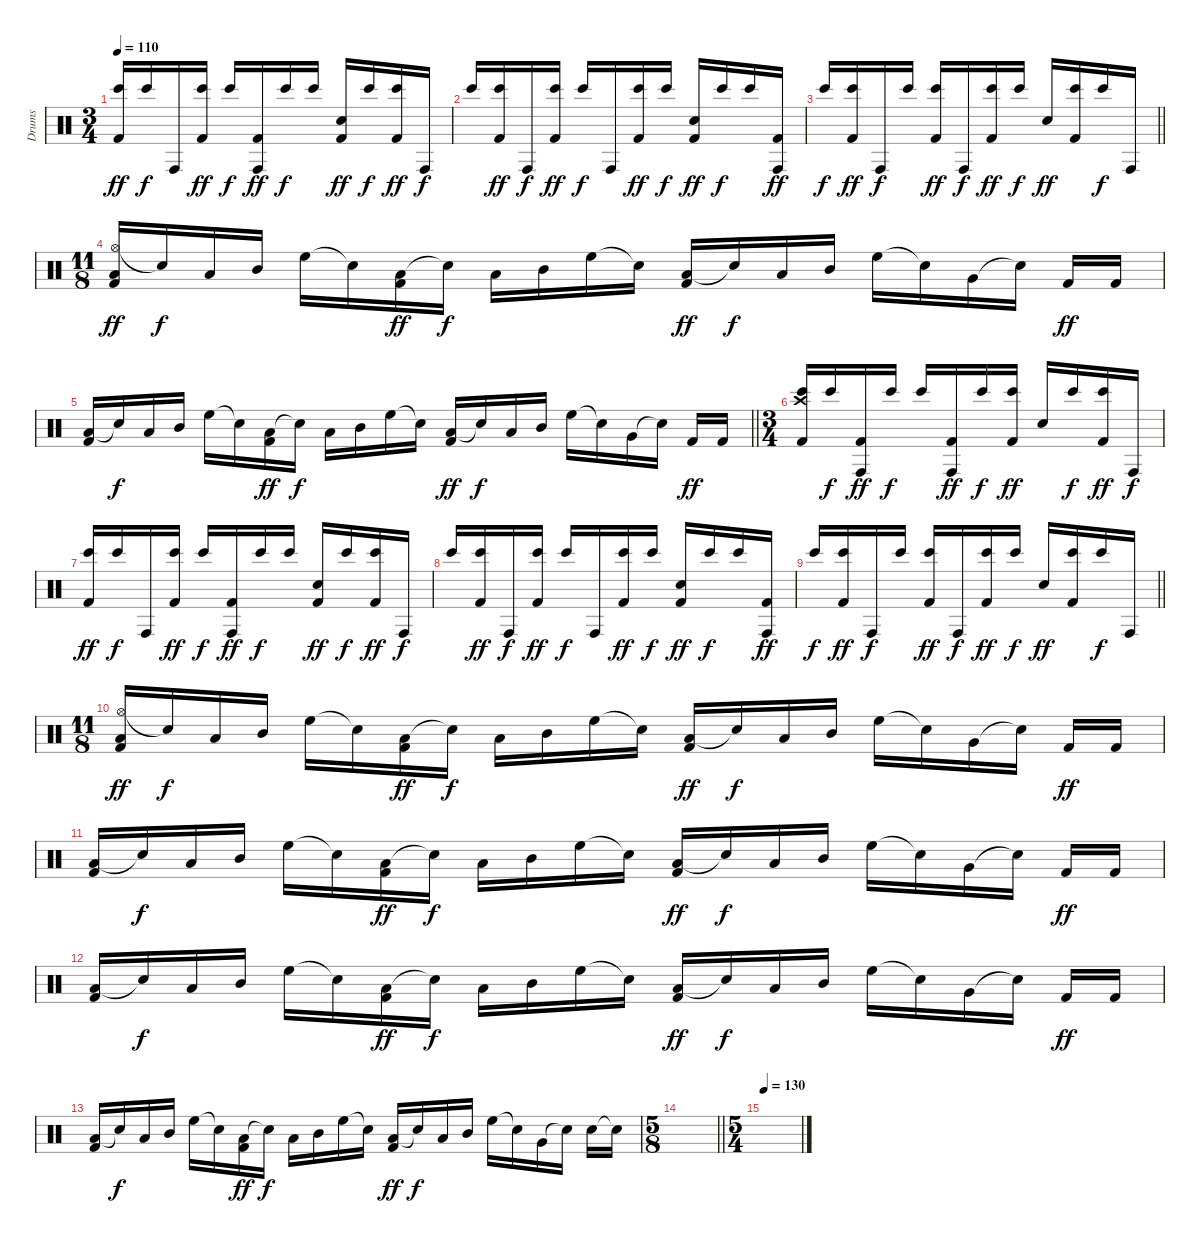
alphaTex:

\track ("Drums" "Drums") {instrument percussion}
\staff {score}
\articulation defaults
\ts (3 4)
\tempo 110
\clef neutral
\ks c
("Bongo High (hit)" "Kick (hit) 2").16{dy ff} "Bongo High (hit)".16{dy f} "Conga high (hit)".16 ("Bongo High (hit)" "Kick (hit) 2").16{dy ff} "Bongo High (hit)".16{dy f} ("Conga high (hit)" "Kick (hit) 2").16{dy ff} "Bongo High (hit)".16{dy f} "Bongo High (hit)".16 ("Snare (hit) 2" "Kick (hit) 2").16{dy ff} "Bongo High (hit)".16{dy f} ("Bongo High (hit)" "Kick (hit) 2").16{dy ff} "Conga high (hit)".16{dy f} |
"Bongo High (hit)".16 ("Bongo High (hit)" "Kick (hit) 2").16{dy ff} "Conga high (hit)".16{dy f} ("Bongo High (hit)" "Kick (hit) 2").16{dy ff} "Bongo High (hit)".16{dy f} "Conga high (hit)".16 ("Bongo High (hit)" "Kick (hit) 2").16{dy ff} "Bongo High (hit)".16{dy f} ("Snare (hit) 2" "Kick (hit) 2").16{dy ff} "Bongo High (hit)".16{dy f} "Bongo High (hit)".16 ("Conga high (hit)" "Kick (hit) 2").16{dy ff} |
\barLineRight lightlight "Bongo High (hit)".16{dy f}
("Bongo High (hit)" "Kick (hit) 2").16{dy ff} "Conga high (hit)".16{dy f} "Bongo High (hit)".16 ("Bongo High (hit)" "Kick (hit) 2").16{dy ff} "Conga high (hit)".16{dy f} ("Bongo High (hit)" "Kick (hit) 2").16{dy ff} "Bongo High (hit)".16{dy f} "Snare (hit) 2".16{dy ff} ("Bongo High (hit)" "Kick (hit) 2").16 "Bongo High (hit)".16{dy f} "Conga high (hit)".16 |
\ts (11 8)
\section ("" "")
("Hi-Hat (open)" "Low Tom (hit)" "Kick (hit) 2").16{dy ff} "Snare (hit)"{t}.16{dy f} "Low Tom (hit)".16 "Mid Tom (hit)".16 "High Floor Tom (hit)".16 "Snare (hit)"{t}.16 ("Low Tom (hit)" "Kick (hit) 2").16{dy ff} "Snare (hit)"{t}.16{dy f} "Low Tom (hit)".16 "Mid Tom (hit)".16 "High Floor Tom (hit)".16 "Snare (hit)"{t}.16 ("Low Tom (hit)" "Kick (hit) 2").16{dy ff} "Snare (hit)"{t}.16{dy f} "Low Tom (hit)".16 "Mid Tom (hit)".16 "High Floor Tom (hit)".16 "Snare (hit)"{t}.16 "Very Low Tom (hit)".16 "Snare (hit)"{t}.16 "Kick (hit) 2".16{dy ff} "Kick (hit) 2".16 |
\barLineRight lightlight
("Low Tom (hit)" "Kick (hit) 2").16 "Snare (hit)"{t}.16{dy f} "Low Tom (hit)".16 "Mid Tom (hit)".16 "High Floor Tom (hit)".16 "Snare (hit)"{t}.16 ("Low Tom (hit)" "Kick (hit) 2").16{dy ff} "Snare (hit)"{t}.16{dy f} "Low Tom (hit)".16 "Mid Tom (hit)".16 "High Floor Tom (hit)".16 "Snare (hit)"{t}.16 ("Low Tom (hit)" "Kick (hit) 2").16{dy ff} "Snare (hit)"{t}.16{dy f} "Low Tom (hit)".16 "Mid Tom (hit)".16 "High Floor Tom (hit)".16 "Snare (hit)"{t}.16 "Very Low Tom (hit)".16 "Snare (hit)"{t}.16 "Kick (hit) 2".16{dy ff} "Kick (hit) 2".16 |
\ts (3 4)
\section ("" "")
("Crash high (hit)" "Bongo High (hit)" "Kick (hit) 2").16 "Bongo High (hit)".16{dy f} ("Conga high (hit)" "Kick (hit) 2").16{dy ff} "Bongo High (hit)".16{dy f} "Bongo High (hit)".16 ("Conga high (hit)" "Kick (hit) 2").16{dy ff} "Bongo High (hit)".16{dy f} ("Bongo High (hit)" "Kick (hit) 2").16{dy ff} "Snare (hit) 2".16 "Bongo High (hit)".16{dy f} ("Bongo High (hit)" "Kick (hit) 2").16{dy ff} "Conga high (hit)".16{dy f} |
("Bongo High (hit)" "Kick (hit) 2").16{dy ff} "Bongo High (hit)".16{dy f} "Conga high (hit)".16 ("Bongo High (hit)" "Kick (hit) 2").16{dy ff} "Bongo High (hit)".16{dy f} ("Conga high (hit)" "Kick (hit) 2").16{dy ff} "Bongo High (hit)".16{dy f} "Bongo High (hit)".16 ("Snare (hit) 2" "Kick (hit) 2").16{dy ff} "Bongo High (hit)".16{dy f} ("Bongo High (hit)" "Kick (hit) 2").16{dy ff} "Conga high (hit)".16{dy f} |
"Bongo High (hit)".16 ("Bongo High (hit)" "Kick (hit) 2").16{dy ff} "Conga high (hit)".16{dy f} ("Bongo High (hit)" "Kick (hit) 2").16{dy ff} "Bongo High (hit)".16{dy f} "Conga high (hit)".16 ("Bongo High (hit)" "Kick (hit) 2").16{dy ff} "Bongo High (hit)".16{dy f} ("Snare (hit) 2" "Kick (hit) 2").16{dy ff} "Bongo High (hit)".16{dy f} "Bongo High (hit)".16 ("Conga high (hit)" "Kick (hit) 2").16{dy ff} |
\barLineRight lightlight "Bongo High (hit)".16{dy f}
("Bongo High (hit)" "Kick (hit) 2").16{dy ff} "Conga high (hit)".16{dy f} "Bongo High (hit)".16 ("Bongo High (hit)" "Kick (hit) 2").16{dy ff} "Conga high (hit)".16{dy f} ("Bongo High (hit)" "Kick (hit) 2").16{dy ff} "Bongo High (hit)".16{dy f} "Snare (hit) 2".16{dy ff} ("Bongo High (hit)" "Kick (hit) 2").16 "Bongo High (hit)".16{dy f} "Conga high (hit)".16 |
\ts (11 8)
\section ("" "")
("Hi-Hat (open)" "Low Tom (hit)" "Kick (hit) 2").16{dy ff} "Snare (hit)"{t}.16{dy f} "Low Tom (hit)".16 "Mid Tom (hit)".16 "High Floor Tom (hit)".16 "Snare (hit)"{t}.16 ("Low Tom (hit)" "Kick (hit) 2").16{dy ff} "Snare (hit)"{t}.16{dy f} "Low Tom (hit)".16 "Mid Tom (hit)".16 "High Floor Tom (hit)".16 "Snare (hit)"{t}.16 ("Low Tom (hit)" "Kick (hit) 2").16{dy ff} "Snare (hit)"{t}.16{dy f} "Low Tom (hit)".16 "Mid Tom (hit)".16 "High Floor Tom (hit)".16 "Snare (hit)"{t}.16 "Very Low Tom (hit)".16 "Snare (hit)"{t}.16 "Kick (hit) 2".16{dy ff} "Kick (hit) 2".16 |
("Low Tom (hit)" "Kick (hit) 2").16 "Snare (hit)"{t}.16{dy f} "Low Tom (hit)".16 "Mid Tom (hit)".16 "High Floor Tom (hit)".16 "Snare (hit)"{t}.16 ("Low Tom (hit)" "Kick (hit) 2").16{dy ff} "Snare (hit)"{t}.16{dy f} "Low Tom (hit)".16 "Mid Tom (hit)".16 "High Floor Tom (hit)".16 "Snare (hit)"{t}.16 ("Low Tom (hit)" "Kick (hit) 2").16{dy ff} "Snare (hit)"{t}.16{dy f} "Low Tom (hit)".16 "Mid Tom (hit)".16 "High Floor Tom (hit)".16 "Snare (hit)"{t}.16 "Very Low Tom (hit)".16 "Snare (hit)"{t}.16 "Kick (hit) 2".16{dy ff} "Kick (hit) 2".16 |
("Low Tom (hit)" "Kick (hit) 2").16 "Snare (hit)"{t}.16{dy f} "Low Tom (hit)".16 "Mid Tom (hit)".16 "High Floor Tom (hit)".16 "Snare (hit)"{t}.16 ("Low Tom (hit)" "Kick (hit) 2").16{dy ff} "Snare (hit)"{t}.16{dy f} "Low Tom (hit)".16 "Mid Tom (hit)".16 "High Floor Tom (hit)".16 "Snare (hit)"{t}.16 ("Low Tom (hit)" "Kick (hit) 2").16{dy ff} "Snare (hit)"{t}.16{dy f} "Low Tom (hit)".16 "Mid Tom (hit)".16 "High Floor Tom (hit)".16 "Snare (hit)"{t}.16 "Very Low Tom (hit)".16 "Snare (hit)"{t}.16 "Kick (hit) 2".16{dy ff} "Kick (hit) 2".16 |
("Low Tom (hit)" "Kick (hit) 2").16 "Snare (hit)"{t}.16{dy f} "Low Tom (hit)".16 "Mid Tom (hit)".16 "High Floor Tom (hit)".16 "Snare (hit)"{t}.16 ("Low Tom (hit)" "Kick (hit) 2").16{dy ff} "Snare (hit)"{t}.16{dy f} "Low Tom (hit)".16 "Mid Tom (hit)".16 "High Floor Tom (hit)".16 "Snare (hit)"{t}.16 ("Low Tom (hit)" "Kick (hit) 2").16{dy ff} "Snare (hit)"{t}.16{dy f} "Low Tom (hit)".16 "Mid Tom (hit)".16 "High Floor Tom (hit)".16 "Snare (hit)"{t}.16 "Very Low Tom (hit)".16 "Snare (hit)"{t}.16 "Snare (hit) 2".16 "Snare (hit)"{t}.16 |
\ts (5 8)
\barLineRight lightlight
|
\ts (5 4)
\section ("" "")
\tempo 130
